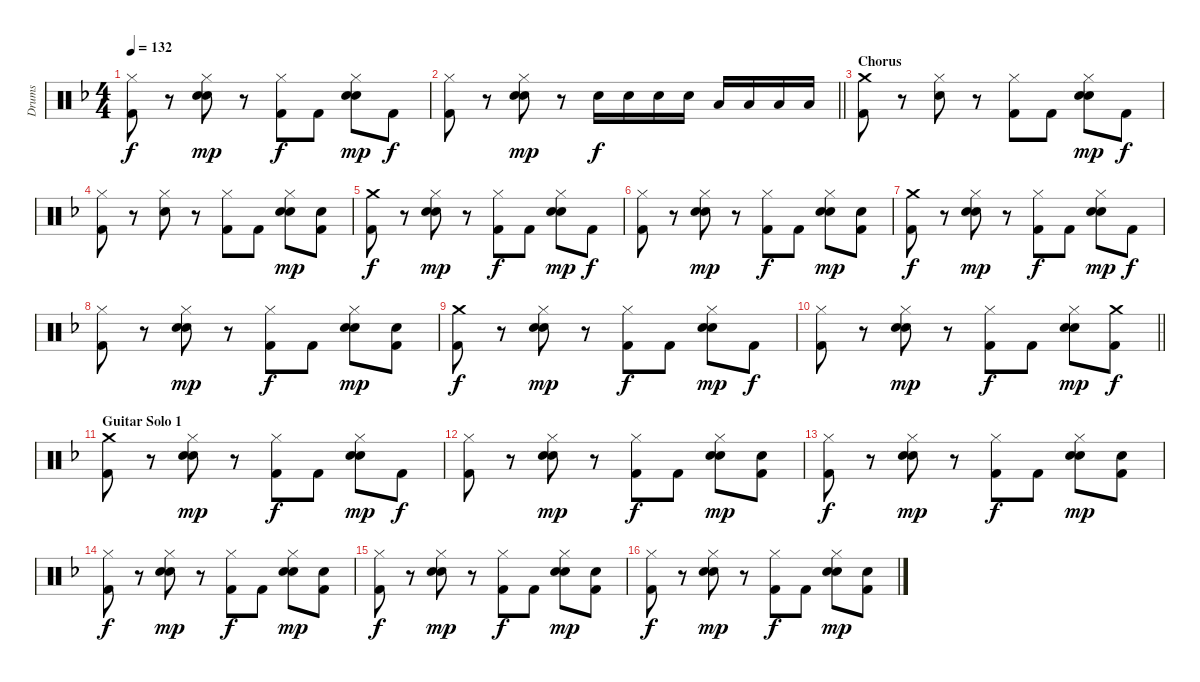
\track ("Drums" "Drums") {instrument percussion}
\staff {score}
\articulation defaults
\ts (4 4)
\tempo 132
\clef neutral
\ks f
("Hi-Hat (closed)" "Kick (hit) 2").8{dy f} r.8 ("Hi-Hat (closed)" "Hand Clap (hit)" "Snare (hit) 2").8{dy mp} r.8 ("Hi-Hat (closed)" "Kick (hit) 2").8{dy f} "Kick (hit) 2".8 ("Hi-Hat (closed)" "Hand Clap (hit)" "Snare (hit) 2").8{dy mp} "Kick (hit) 2".8{dy f} |
\barLineRight lightlight
("Hi-Hat (closed)" "Kick (hit) 2").8 r.8 ("Hi-Hat (closed)" "Hand Clap (hit)" "Snare (hit) 2").8{dy mp} r.8 "Snare (hit) 2".16{dy f} "Snare (hit) 2".16 "Snare (hit) 2".16 "Snare (hit) 2".16 "Low Tom (hit)".16 "Low Tom (hit)".16 "Low Tom (hit)".16 "Low Tom (hit)".16 |
\section ("" "Chorus")
("Crash medium (hit)" "Kick (hit) 2").8 r.8 ("Hi-Hat (closed)" "Snare (hit) 2").8 r.8 ("Hi-Hat (closed)" "Kick (hit) 2").8 "Kick (hit) 2".8 ("Hi-Hat (closed)" "Hand Clap (hit)" "Snare (hit) 2").8{dy mp} "Kick (hit) 2".8{dy f} |
("Hi-Hat (closed)" "Kick (hit) 2").8 r.8 ("Hi-Hat (closed)" "Snare (hit) 2").8 r.8 ("Hi-Hat (closed)" "Kick (hit) 2").8 "Kick (hit) 2".8 ("Hi-Hat (closed)" "Hand Clap (hit)" "Snare (hit) 2").8{dy mp} ("Hand Clap (hit)" "Kick (hit) 2").8 |
("Crash medium (hit)" "Kick (hit) 2").8{dy f} r.8 ("Hi-Hat (closed)" "Hand Clap (hit)" "Snare (hit) 2").8{dy mp} r.8 ("Hi-Hat (closed)" "Kick (hit) 2").8{dy f} "Kick (hit) 2".8 ("Hi-Hat (closed)" "Hand Clap (hit)" "Snare (hit) 2").8{dy mp} "Kick (hit) 2".8{dy f} |
("Hi-Hat (closed)" "Kick (hit) 2").8 r.8 ("Hi-Hat (closed)" "Hand Clap (hit)" "Snare (hit) 2").8{dy mp} r.8 ("Hi-Hat (closed)" "Kick (hit) 2").8{dy f} "Kick (hit) 2".8 ("Hi-Hat (closed)" "Hand Clap (hit)" "Snare (hit) 2").8{dy mp} ("Hand Clap (hit)" "Kick (hit) 2").8 |
("Crash medium (hit)" "Kick (hit) 2").8{dy f} r.8 ("Hi-Hat (closed)" "Hand Clap (hit)" "Snare (hit) 2").8{dy mp} r.8 ("Hi-Hat (closed)" "Kick (hit) 2").8{dy f} "Kick (hit) 2".8 ("Hi-Hat (closed)" "Hand Clap (hit)" "Snare (hit) 2").8{dy mp} "Kick (hit) 2".8{dy f} |
("Hi-Hat (closed)" "Kick (hit) 2").8 r.8 ("Hi-Hat (closed)" "Hand Clap (hit)" "Snare (hit) 2").8{dy mp} r.8 ("Hi-Hat (closed)" "Kick (hit) 2").8{dy f} "Kick (hit) 2".8 ("Hi-Hat (closed)" "Hand Clap (hit)" "Snare (hit) 2").8{dy mp} ("Hand Clap (hit)" "Kick (hit) 2").8 |
("Crash medium (hit)" "Kick (hit) 2").8{dy f} r.8 ("Hi-Hat (closed)" "Hand Clap (hit)" "Snare (hit) 2").8{dy mp} r.8 ("Hi-Hat (closed)" "Kick (hit) 2").8{dy f} "Kick (hit) 2".8 ("Hi-Hat (closed)" "Hand Clap (hit)" "Snare (hit) 2").8{dy mp} "Kick (hit) 2".8{dy f} |
\barLineRight lightlight
("Hi-Hat (closed)" "Kick (hit) 2").8 r.8 ("Hi-Hat (closed)" "Hand Clap (hit)" "Snare (hit) 2").8{dy mp} r.8 ("Hi-Hat (closed)" "Kick (hit) 2").8{dy f} "Kick (hit) 2".8 ("Hi-Hat (closed)" "Hand Clap (hit)" "Snare (hit) 2").8{dy mp} ("Crash medium (hit)" "Kick (hit) 2").8{dy f} |
\section ("" "Guitar Solo 1")
("Crash medium (hit)" "Kick (hit) 2").8 r.8 ("Hi-Hat (closed)" "Hand Clap (hit)" "Snare (hit) 2").8{dy mp} r.8 ("Hi-Hat (closed)" "Kick (hit) 2").8{dy f} "Kick (hit) 2".8 ("Hi-Hat (closed)" "Hand Clap (hit)" "Snare (hit) 2").8{dy mp} "Kick (hit) 2".8{dy f} |
("Hi-Hat (closed)" "Kick (hit) 2").8 r.8 ("Hi-Hat (closed)" "Hand Clap (hit)" "Snare (hit) 2").8{dy mp} r.8 ("Hi-Hat (closed)" "Kick (hit) 2").8{dy f} "Kick (hit) 2".8 ("Hi-Hat (closed)" "Hand Clap (hit)" "Snare (hit) 2").8{dy mp} ("Hand Clap (hit)" "Kick (hit) 2").8 |
("Hi-Hat (closed)" "Kick (hit) 2").8{dy f} r.8 ("Hi-Hat (closed)" "Hand Clap (hit)" "Snare (hit) 2").8{dy mp} r.8 ("Hi-Hat (closed)" "Kick (hit) 2").8{dy f} "Kick (hit) 2".8 ("Hi-Hat (closed)" "Hand Clap (hit)" "Snare (hit) 2").8{dy mp} ("Hand Clap (hit)" "Kick (hit) 2").8 |
("Hi-Hat (closed)" "Kick (hit) 2").8{dy f} r.8 ("Hi-Hat (closed)" "Hand Clap (hit)" "Snare (hit) 2").8{dy mp} r.8 ("Hi-Hat (closed)" "Kick (hit) 2").8{dy f} "Kick (hit) 2".8 ("Hi-Hat (closed)" "Hand Clap (hit)" "Snare (hit) 2").8{dy mp} ("Hand Clap (hit)" "Kick (hit) 2").8 |
("Hi-Hat (closed)" "Kick (hit) 2").8{dy f} r.8 ("Hi-Hat (closed)" "Hand Clap (hit)" "Snare (hit) 2").8{dy mp} r.8 ("Hi-Hat (closed)" "Kick (hit) 2").8{dy f} "Kick (hit) 2".8 ("Hi-Hat (closed)" "Hand Clap (hit)" "Snare (hit) 2").8{dy mp} ("Hand Clap (hit)" "Kick (hit) 2").8 |
("Hi-Hat (closed)" "Kick (hit) 2").8{dy f} r.8 ("Hi-Hat (closed)" "Hand Clap (hit)" "Snare (hit) 2").8{dy mp} r.8 ("Hi-Hat (closed)" "Kick (hit) 2").8{dy f} "Kick (hit) 2".8 ("Hi-Hat (closed)" "Hand Clap (hit)" "Snare (hit) 2").8{dy mp} ("Hand Clap (hit)" "Kick (hit) 2").8
